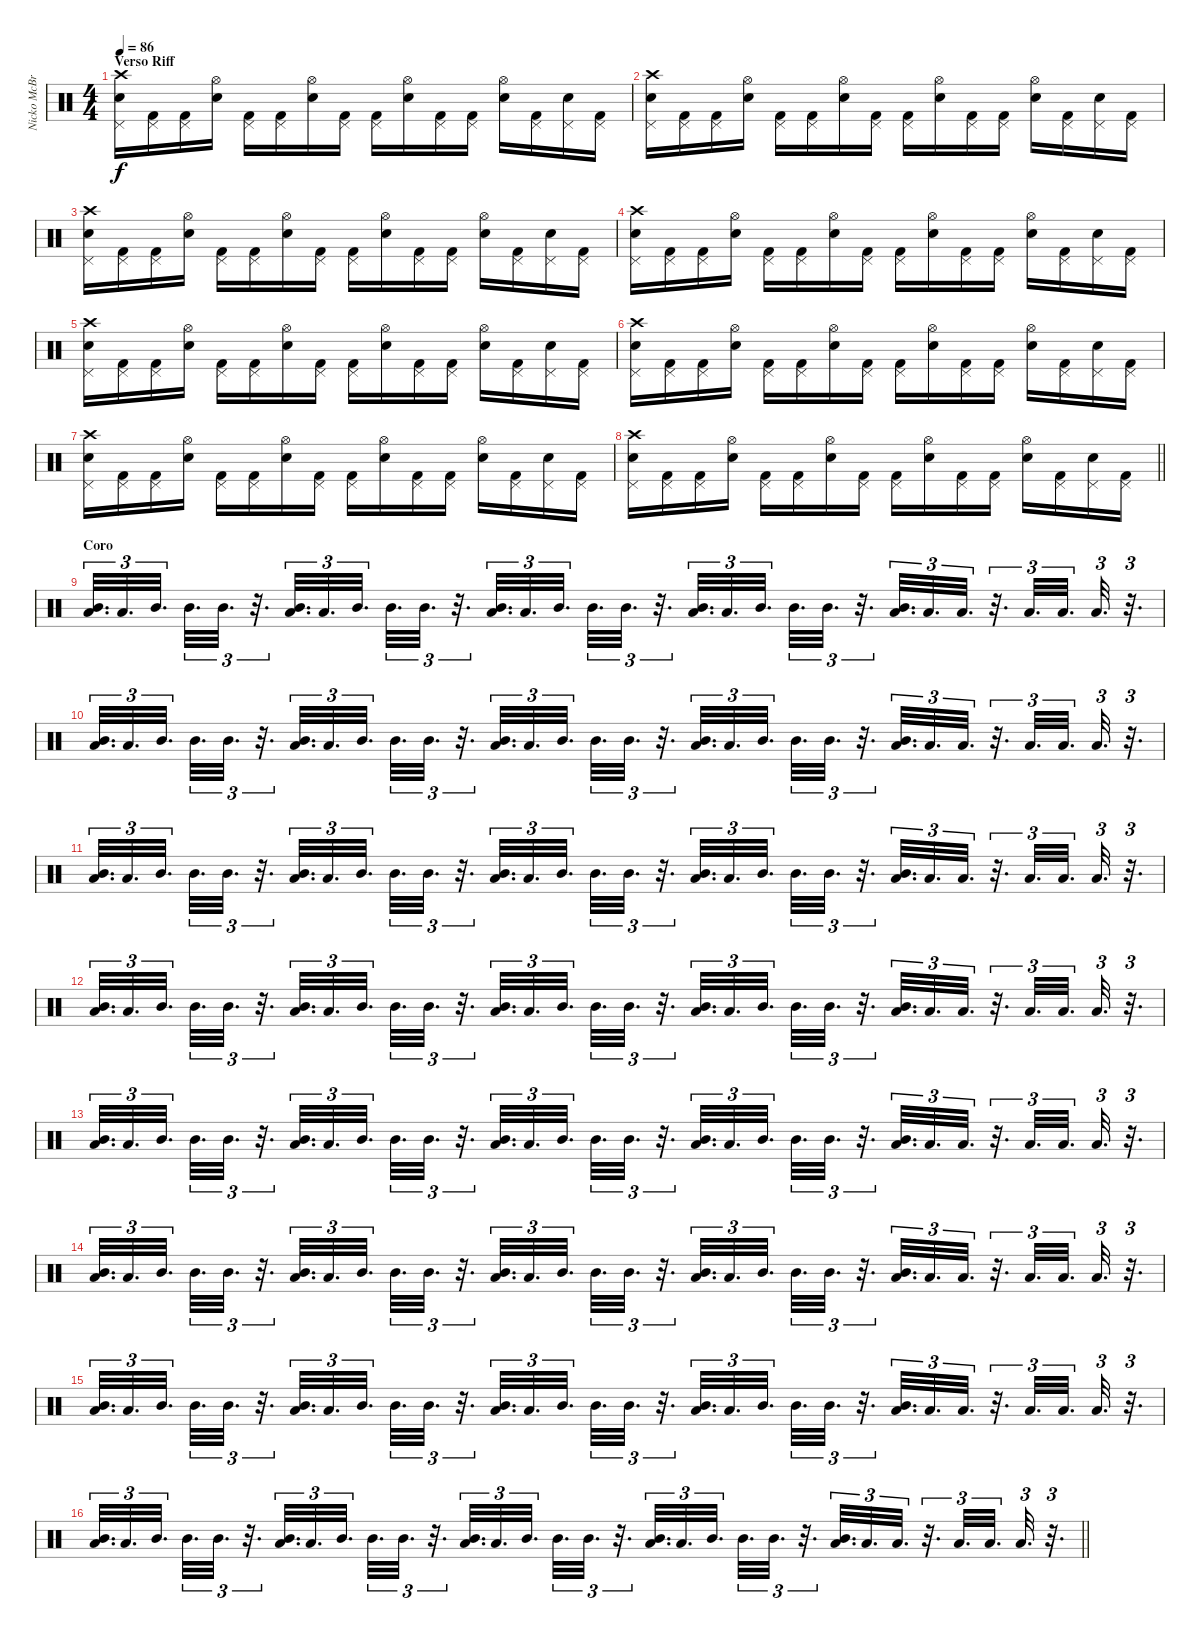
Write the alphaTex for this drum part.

\track ("Nicko McBrain" "Nicko McBr") {instrument percussion}
\staff {score}
\articulation defaults
\ts (4 4)
\section ("" "Verso Riff")
\tempo 86
\clef neutral
\ks c
("Snare (hit) 2" "Pedal Hi-Hat (hit)" "Crash high (hit)").16{dy f} ("Kick (hit) 2" "Pedal Hi-Hat (hit)").16 ("Kick (hit) 2" "Pedal Hi-Hat (hit)").16 ("Snare (hit) 2" "Hi-Hat (open)").16 ("Kick (hit) 2" "Pedal Hi-Hat (hit)").16 ("Kick (hit) 2" "Pedal Hi-Hat (hit)").16 ("Snare (hit) 2" "Hi-Hat (open)").16 ("Kick (hit) 2" "Pedal Hi-Hat (hit)").16 ("Kick (hit) 2" "Pedal Hi-Hat (hit)").16 ("Snare (hit) 2" "Hi-Hat (open)").16 ("Kick (hit) 2" "Pedal Hi-Hat (hit)").16 ("Kick (hit) 2" "Pedal Hi-Hat (hit)").16 ("Snare (hit) 2" "Hi-Hat (open)").16 ("Kick (hit) 2" "Pedal Hi-Hat (hit)").16 ("Snare (hit) 2" "Pedal Hi-Hat (hit)").16 ("Kick (hit) 2" "Pedal Hi-Hat (hit)").16 |
("Snare (hit) 2" "Pedal Hi-Hat (hit)" "Crash high (hit)").16 ("Kick (hit) 2" "Pedal Hi-Hat (hit)").16 ("Kick (hit) 2" "Pedal Hi-Hat (hit)").16 ("Snare (hit) 2" "Hi-Hat (open)").16 ("Kick (hit) 2" "Pedal Hi-Hat (hit)").16 ("Kick (hit) 2" "Pedal Hi-Hat (hit)").16 ("Snare (hit) 2" "Hi-Hat (open)").16 ("Kick (hit) 2" "Pedal Hi-Hat (hit)").16 ("Kick (hit) 2" "Pedal Hi-Hat (hit)").16 ("Snare (hit) 2" "Hi-Hat (open)").16 ("Kick (hit) 2" "Pedal Hi-Hat (hit)").16 ("Kick (hit) 2" "Pedal Hi-Hat (hit)").16 ("Snare (hit) 2" "Hi-Hat (open)").16 ("Kick (hit) 2" "Pedal Hi-Hat (hit)").16 ("Snare (hit) 2" "Pedal Hi-Hat (hit)").16 ("Kick (hit) 2" "Pedal Hi-Hat (hit)").16 |
("Snare (hit) 2" "Pedal Hi-Hat (hit)" "Crash high (hit)").16 ("Kick (hit) 2" "Pedal Hi-Hat (hit)").16 ("Kick (hit) 2" "Pedal Hi-Hat (hit)").16 ("Snare (hit) 2" "Hi-Hat (open)").16 ("Kick (hit) 2" "Pedal Hi-Hat (hit)").16 ("Kick (hit) 2" "Pedal Hi-Hat (hit)").16 ("Snare (hit) 2" "Hi-Hat (open)").16 ("Kick (hit) 2" "Pedal Hi-Hat (hit)").16 ("Kick (hit) 2" "Pedal Hi-Hat (hit)").16 ("Snare (hit) 2" "Hi-Hat (open)").16 ("Kick (hit) 2" "Pedal Hi-Hat (hit)").16 ("Kick (hit) 2" "Pedal Hi-Hat (hit)").16 ("Snare (hit) 2" "Hi-Hat (open)").16 ("Kick (hit) 2" "Pedal Hi-Hat (hit)").16 ("Snare (hit) 2" "Pedal Hi-Hat (hit)").16 ("Kick (hit) 2" "Pedal Hi-Hat (hit)").16 |
("Snare (hit) 2" "Pedal Hi-Hat (hit)" "Crash high (hit)").16 ("Kick (hit) 2" "Pedal Hi-Hat (hit)").16 ("Kick (hit) 2" "Pedal Hi-Hat (hit)").16 ("Snare (hit) 2" "Hi-Hat (open)").16 ("Kick (hit) 2" "Pedal Hi-Hat (hit)").16 ("Kick (hit) 2" "Pedal Hi-Hat (hit)").16 ("Snare (hit) 2" "Hi-Hat (open)").16 ("Kick (hit) 2" "Pedal Hi-Hat (hit)").16 ("Kick (hit) 2" "Pedal Hi-Hat (hit)").16 ("Snare (hit) 2" "Hi-Hat (open)").16 ("Kick (hit) 2" "Pedal Hi-Hat (hit)").16 ("Kick (hit) 2" "Pedal Hi-Hat (hit)").16 ("Snare (hit) 2" "Hi-Hat (open)").16 ("Kick (hit) 2" "Pedal Hi-Hat (hit)").16 ("Snare (hit) 2" "Pedal Hi-Hat (hit)").16 ("Kick (hit) 2" "Pedal Hi-Hat (hit)").16 |
("Snare (hit) 2" "Pedal Hi-Hat (hit)" "Crash high (hit)").16 ("Kick (hit) 2" "Pedal Hi-Hat (hit)").16 ("Kick (hit) 2" "Pedal Hi-Hat (hit)").16 ("Snare (hit) 2" "Hi-Hat (open)").16 ("Kick (hit) 2" "Pedal Hi-Hat (hit)").16 ("Kick (hit) 2" "Pedal Hi-Hat (hit)").16 ("Snare (hit) 2" "Hi-Hat (open)").16 ("Kick (hit) 2" "Pedal Hi-Hat (hit)").16 ("Kick (hit) 2" "Pedal Hi-Hat (hit)").16 ("Snare (hit) 2" "Hi-Hat (open)").16 ("Kick (hit) 2" "Pedal Hi-Hat (hit)").16 ("Kick (hit) 2" "Pedal Hi-Hat (hit)").16 ("Snare (hit) 2" "Hi-Hat (open)").16 ("Kick (hit) 2" "Pedal Hi-Hat (hit)").16 ("Snare (hit) 2" "Pedal Hi-Hat (hit)").16 ("Kick (hit) 2" "Pedal Hi-Hat (hit)").16 |
("Snare (hit) 2" "Pedal Hi-Hat (hit)" "Crash high (hit)").16 ("Kick (hit) 2" "Pedal Hi-Hat (hit)").16 ("Kick (hit) 2" "Pedal Hi-Hat (hit)").16 ("Snare (hit) 2" "Hi-Hat (open)").16 ("Kick (hit) 2" "Pedal Hi-Hat (hit)").16 ("Kick (hit) 2" "Pedal Hi-Hat (hit)").16 ("Snare (hit) 2" "Hi-Hat (open)").16 ("Kick (hit) 2" "Pedal Hi-Hat (hit)").16 ("Kick (hit) 2" "Pedal Hi-Hat (hit)").16 ("Snare (hit) 2" "Hi-Hat (open)").16 ("Kick (hit) 2" "Pedal Hi-Hat (hit)").16 ("Kick (hit) 2" "Pedal Hi-Hat (hit)").16 ("Snare (hit) 2" "Hi-Hat (open)").16 ("Kick (hit) 2" "Pedal Hi-Hat (hit)").16 ("Snare (hit) 2" "Pedal Hi-Hat (hit)").16 ("Kick (hit) 2" "Pedal Hi-Hat (hit)").16 |
("Snare (hit) 2" "Pedal Hi-Hat (hit)" "Crash high (hit)").16 ("Kick (hit) 2" "Pedal Hi-Hat (hit)").16 ("Kick (hit) 2" "Pedal Hi-Hat (hit)").16 ("Snare (hit) 2" "Hi-Hat (open)").16 ("Kick (hit) 2" "Pedal Hi-Hat (hit)").16 ("Kick (hit) 2" "Pedal Hi-Hat (hit)").16 ("Snare (hit) 2" "Hi-Hat (open)").16 ("Kick (hit) 2" "Pedal Hi-Hat (hit)").16 ("Kick (hit) 2" "Pedal Hi-Hat (hit)").16 ("Snare (hit) 2" "Hi-Hat (open)").16 ("Kick (hit) 2" "Pedal Hi-Hat (hit)").16 ("Kick (hit) 2" "Pedal Hi-Hat (hit)").16 ("Snare (hit) 2" "Hi-Hat (open)").16 ("Kick (hit) 2" "Pedal Hi-Hat (hit)").16 ("Snare (hit) 2" "Pedal Hi-Hat (hit)").16 ("Kick (hit) 2" "Pedal Hi-Hat (hit)").16 |
\barLineRight lightlight
("Snare (hit) 2" "Pedal Hi-Hat (hit)" "Crash high (hit)").16 ("Kick (hit) 2" "Pedal Hi-Hat (hit)").16 ("Kick (hit) 2" "Pedal Hi-Hat (hit)").16 ("Snare (hit) 2" "Hi-Hat (open)").16 ("Kick (hit) 2" "Pedal Hi-Hat (hit)").16 ("Kick (hit) 2" "Pedal Hi-Hat (hit)").16 ("Snare (hit) 2" "Hi-Hat (open)").16 ("Kick (hit) 2" "Pedal Hi-Hat (hit)").16 ("Kick (hit) 2" "Pedal Hi-Hat (hit)").16 ("Snare (hit) 2" "Hi-Hat (open)").16 ("Kick (hit) 2" "Pedal Hi-Hat (hit)").16 ("Kick (hit) 2" "Pedal Hi-Hat (hit)").16 ("Snare (hit) 2" "Hi-Hat (open)").16 ("Kick (hit) 2" "Pedal Hi-Hat (hit)").16 ("Snare (hit) 2" "Pedal Hi-Hat (hit)").16 ("Kick (hit) 2" "Pedal Hi-Hat (hit)").16 |
\section ("" "Coro")
("Mid Tom (hit)" "Low Tom (hit)").32{d tu (3 2)} "Low Tom (hit)".32{d tu (3 2)} "Mid Tom (hit)".32{d tu (3 2)} "Mid Tom (hit)".32{d tu (3 2)} "Mid Tom (hit)".32{d tu (3 2)} r.32{d tu (3 2)} ("Mid Tom (hit)" "Low Tom (hit)").32{d tu (3 2)} "Low Tom (hit)".32{d tu (3 2)} "Mid Tom (hit)".32{d tu (3 2)} "Mid Tom (hit)".32{d tu (3 2)} "Mid Tom (hit)".32{d tu (3 2)} r.32{d tu (3 2)} ("Mid Tom (hit)" "Low Tom (hit)").32{d tu (3 2)} "Low Tom (hit)".32{d tu (3 2)} "Mid Tom (hit)".32{d tu (3 2)} "Mid Tom (hit)".32{d tu (3 2)} "Mid Tom (hit)".32{d tu (3 2)} r.32{d tu (3 2)} ("Mid Tom (hit)" "Low Tom (hit)").32{d tu (3 2)} "Low Tom (hit)".32{d tu (3 2)} "Mid Tom (hit)".32{d tu (3 2)} "Mid Tom (hit)".32{d tu (3 2)} "Mid Tom (hit)".32{d tu (3 2)} r.32{d tu (3 2)} ("Mid Tom (hit)" "Low Tom (hit)").32{d tu (3 2)} "Low Tom (hit)".32{d tu (3 2)} "Low Tom (hit)".32{d tu (3 2)} r.32{d tu (3 2)} "Low Tom (hit)".32{d tu (3 2)} "Low Tom (hit)".32{d tu (3 2)} "Low Tom (hit)".32{d tu (3 2)} r.32{d tu (3 2)} |
("Mid Tom (hit)" "Low Tom (hit)").32{d tu (3 2)} "Low Tom (hit)".32{d tu (3 2)} "Mid Tom (hit)".32{d tu (3 2)} "Mid Tom (hit)".32{d tu (3 2)} "Mid Tom (hit)".32{d tu (3 2)} r.32{d tu (3 2)} ("Mid Tom (hit)" "Low Tom (hit)").32{d tu (3 2)} "Low Tom (hit)".32{d tu (3 2)} "Mid Tom (hit)".32{d tu (3 2)} "Mid Tom (hit)".32{d tu (3 2)} "Mid Tom (hit)".32{d tu (3 2)} r.32{d tu (3 2)} ("Mid Tom (hit)" "Low Tom (hit)").32{d tu (3 2)} "Low Tom (hit)".32{d tu (3 2)} "Mid Tom (hit)".32{d tu (3 2)} "Mid Tom (hit)".32{d tu (3 2)} "Mid Tom (hit)".32{d tu (3 2)} r.32{d tu (3 2)} ("Mid Tom (hit)" "Low Tom (hit)").32{d tu (3 2)} "Low Tom (hit)".32{d tu (3 2)} "Mid Tom (hit)".32{d tu (3 2)} "Mid Tom (hit)".32{d tu (3 2)} "Mid Tom (hit)".32{d tu (3 2)} r.32{d tu (3 2)} ("Mid Tom (hit)" "Low Tom (hit)").32{d tu (3 2)} "Low Tom (hit)".32{d tu (3 2)} "Low Tom (hit)".32{d tu (3 2)} r.32{d tu (3 2)} "Low Tom (hit)".32{d tu (3 2)} "Low Tom (hit)".32{d tu (3 2)} "Low Tom (hit)".32{d tu (3 2)} r.32{d tu (3 2)} |
("Mid Tom (hit)" "Low Tom (hit)").32{d tu (3 2)} "Low Tom (hit)".32{d tu (3 2)} "Mid Tom (hit)".32{d tu (3 2)} "Mid Tom (hit)".32{d tu (3 2)} "Mid Tom (hit)".32{d tu (3 2)} r.32{d tu (3 2)} ("Mid Tom (hit)" "Low Tom (hit)").32{d tu (3 2)} "Low Tom (hit)".32{d tu (3 2)} "Mid Tom (hit)".32{d tu (3 2)} "Mid Tom (hit)".32{d tu (3 2)} "Mid Tom (hit)".32{d tu (3 2)} r.32{d tu (3 2)} ("Mid Tom (hit)" "Low Tom (hit)").32{d tu (3 2)} "Low Tom (hit)".32{d tu (3 2)} "Mid Tom (hit)".32{d tu (3 2)} "Mid Tom (hit)".32{d tu (3 2)} "Mid Tom (hit)".32{d tu (3 2)} r.32{d tu (3 2)} ("Mid Tom (hit)" "Low Tom (hit)").32{d tu (3 2)} "Low Tom (hit)".32{d tu (3 2)} "Mid Tom (hit)".32{d tu (3 2)} "Mid Tom (hit)".32{d tu (3 2)} "Mid Tom (hit)".32{d tu (3 2)} r.32{d tu (3 2)} ("Mid Tom (hit)" "Low Tom (hit)").32{d tu (3 2)} "Low Tom (hit)".32{d tu (3 2)} "Low Tom (hit)".32{d tu (3 2)} r.32{d tu (3 2)} "Low Tom (hit)".32{d tu (3 2)} "Low Tom (hit)".32{d tu (3 2)} "Low Tom (hit)".32{d tu (3 2)} r.32{d tu (3 2)} |
("Mid Tom (hit)" "Low Tom (hit)").32{d tu (3 2)} "Low Tom (hit)".32{d tu (3 2)} "Mid Tom (hit)".32{d tu (3 2)} "Mid Tom (hit)".32{d tu (3 2)} "Mid Tom (hit)".32{d tu (3 2)} r.32{d tu (3 2)} ("Mid Tom (hit)" "Low Tom (hit)").32{d tu (3 2)} "Low Tom (hit)".32{d tu (3 2)} "Mid Tom (hit)".32{d tu (3 2)} "Mid Tom (hit)".32{d tu (3 2)} "Mid Tom (hit)".32{d tu (3 2)} r.32{d tu (3 2)} ("Mid Tom (hit)" "Low Tom (hit)").32{d tu (3 2)} "Low Tom (hit)".32{d tu (3 2)} "Mid Tom (hit)".32{d tu (3 2)} "Mid Tom (hit)".32{d tu (3 2)} "Mid Tom (hit)".32{d tu (3 2)} r.32{d tu (3 2)} ("Mid Tom (hit)" "Low Tom (hit)").32{d tu (3 2)} "Low Tom (hit)".32{d tu (3 2)} "Mid Tom (hit)".32{d tu (3 2)} "Mid Tom (hit)".32{d tu (3 2)} "Mid Tom (hit)".32{d tu (3 2)} r.32{d tu (3 2)} ("Mid Tom (hit)" "Low Tom (hit)").32{d tu (3 2)} "Low Tom (hit)".32{d tu (3 2)} "Low Tom (hit)".32{d tu (3 2)} r.32{d tu (3 2)} "Low Tom (hit)".32{d tu (3 2)} "Low Tom (hit)".32{d tu (3 2)} "Low Tom (hit)".32{d tu (3 2)} r.32{d tu (3 2)} |
("Mid Tom (hit)" "Low Tom (hit)").32{d tu (3 2)} "Low Tom (hit)".32{d tu (3 2)} "Mid Tom (hit)".32{d tu (3 2)} "Mid Tom (hit)".32{d tu (3 2)} "Mid Tom (hit)".32{d tu (3 2)} r.32{d tu (3 2)} ("Mid Tom (hit)" "Low Tom (hit)").32{d tu (3 2)} "Low Tom (hit)".32{d tu (3 2)} "Mid Tom (hit)".32{d tu (3 2)} "Mid Tom (hit)".32{d tu (3 2)} "Mid Tom (hit)".32{d tu (3 2)} r.32{d tu (3 2)} ("Mid Tom (hit)" "Low Tom (hit)").32{d tu (3 2)} "Low Tom (hit)".32{d tu (3 2)} "Mid Tom (hit)".32{d tu (3 2)} "Mid Tom (hit)".32{d tu (3 2)} "Mid Tom (hit)".32{d tu (3 2)} r.32{d tu (3 2)} ("Mid Tom (hit)" "Low Tom (hit)").32{d tu (3 2)} "Low Tom (hit)".32{d tu (3 2)} "Mid Tom (hit)".32{d tu (3 2)} "Mid Tom (hit)".32{d tu (3 2)} "Mid Tom (hit)".32{d tu (3 2)} r.32{d tu (3 2)} ("Mid Tom (hit)" "Low Tom (hit)").32{d tu (3 2)} "Low Tom (hit)".32{d tu (3 2)} "Low Tom (hit)".32{d tu (3 2)} r.32{d tu (3 2)} "Low Tom (hit)".32{d tu (3 2)} "Low Tom (hit)".32{d tu (3 2)} "Low Tom (hit)".32{d tu (3 2)} r.32{d tu (3 2)} |
("Mid Tom (hit)" "Low Tom (hit)").32{d tu (3 2)} "Low Tom (hit)".32{d tu (3 2)} "Mid Tom (hit)".32{d tu (3 2)} "Mid Tom (hit)".32{d tu (3 2)} "Mid Tom (hit)".32{d tu (3 2)} r.32{d tu (3 2)} ("Mid Tom (hit)" "Low Tom (hit)").32{d tu (3 2)} "Low Tom (hit)".32{d tu (3 2)} "Mid Tom (hit)".32{d tu (3 2)} "Mid Tom (hit)".32{d tu (3 2)} "Mid Tom (hit)".32{d tu (3 2)} r.32{d tu (3 2)} ("Mid Tom (hit)" "Low Tom (hit)").32{d tu (3 2)} "Low Tom (hit)".32{d tu (3 2)} "Mid Tom (hit)".32{d tu (3 2)} "Mid Tom (hit)".32{d tu (3 2)} "Mid Tom (hit)".32{d tu (3 2)} r.32{d tu (3 2)} ("Mid Tom (hit)" "Low Tom (hit)").32{d tu (3 2)} "Low Tom (hit)".32{d tu (3 2)} "Mid Tom (hit)".32{d tu (3 2)} "Mid Tom (hit)".32{d tu (3 2)} "Mid Tom (hit)".32{d tu (3 2)} r.32{d tu (3 2)} ("Mid Tom (hit)" "Low Tom (hit)").32{d tu (3 2)} "Low Tom (hit)".32{d tu (3 2)} "Low Tom (hit)".32{d tu (3 2)} r.32{d tu (3 2)} "Low Tom (hit)".32{d tu (3 2)} "Low Tom (hit)".32{d tu (3 2)} "Low Tom (hit)".32{d tu (3 2)} r.32{d tu (3 2)} |
("Mid Tom (hit)" "Low Tom (hit)").32{d tu (3 2)} "Low Tom (hit)".32{d tu (3 2)} "Mid Tom (hit)".32{d tu (3 2)} "Mid Tom (hit)".32{d tu (3 2)} "Mid Tom (hit)".32{d tu (3 2)} r.32{d tu (3 2)} ("Mid Tom (hit)" "Low Tom (hit)").32{d tu (3 2)} "Low Tom (hit)".32{d tu (3 2)} "Mid Tom (hit)".32{d tu (3 2)} "Mid Tom (hit)".32{d tu (3 2)} "Mid Tom (hit)".32{d tu (3 2)} r.32{d tu (3 2)} ("Mid Tom (hit)" "Low Tom (hit)").32{d tu (3 2)} "Low Tom (hit)".32{d tu (3 2)} "Mid Tom (hit)".32{d tu (3 2)} "Mid Tom (hit)".32{d tu (3 2)} "Mid Tom (hit)".32{d tu (3 2)} r.32{d tu (3 2)} ("Mid Tom (hit)" "Low Tom (hit)").32{d tu (3 2)} "Low Tom (hit)".32{d tu (3 2)} "Mid Tom (hit)".32{d tu (3 2)} "Mid Tom (hit)".32{d tu (3 2)} "Mid Tom (hit)".32{d tu (3 2)} r.32{d tu (3 2)} ("Mid Tom (hit)" "Low Tom (hit)").32{d tu (3 2)} "Low Tom (hit)".32{d tu (3 2)} "Low Tom (hit)".32{d tu (3 2)} r.32{d tu (3 2)} "Low Tom (hit)".32{d tu (3 2)} "Low Tom (hit)".32{d tu (3 2)} "Low Tom (hit)".32{d tu (3 2)} r.32{d tu (3 2)} |
\barLineRight lightlight
("Mid Tom (hit)" "Low Tom (hit)").32{d tu (3 2)} "Low Tom (hit)".32{d tu (3 2)} "Mid Tom (hit)".32{d tu (3 2)} "Mid Tom (hit)".32{d tu (3 2)} "Mid Tom (hit)".32{d tu (3 2)} r.32{d tu (3 2)} ("Mid Tom (hit)" "Low Tom (hit)").32{d tu (3 2)} "Low Tom (hit)".32{d tu (3 2)} "Mid Tom (hit)".32{d tu (3 2)} "Mid Tom (hit)".32{d tu (3 2)} "Mid Tom (hit)".32{d tu (3 2)} r.32{d tu (3 2)} ("Mid Tom (hit)" "Low Tom (hit)").32{d tu (3 2)} "Low Tom (hit)".32{d tu (3 2)} "Mid Tom (hit)".32{d tu (3 2)} "Mid Tom (hit)".32{d tu (3 2)} "Mid Tom (hit)".32{d tu (3 2)} r.32{d tu (3 2)} ("Mid Tom (hit)" "Low Tom (hit)").32{d tu (3 2)} "Low Tom (hit)".32{d tu (3 2)} "Mid Tom (hit)".32{d tu (3 2)} "Mid Tom (hit)".32{d tu (3 2)} "Mid Tom (hit)".32{d tu (3 2)} r.32{d tu (3 2)} ("Mid Tom (hit)" "Low Tom (hit)").32{d tu (3 2)} "Low Tom (hit)".32{d tu (3 2)} "Low Tom (hit)".32{d tu (3 2)} r.32{d tu (3 2)} "Low Tom (hit)".32{d tu (3 2)} "Low Tom (hit)".32{d tu (3 2)} "Low Tom (hit)".32{d tu (3 2)} r.32{d tu (3 2)}
